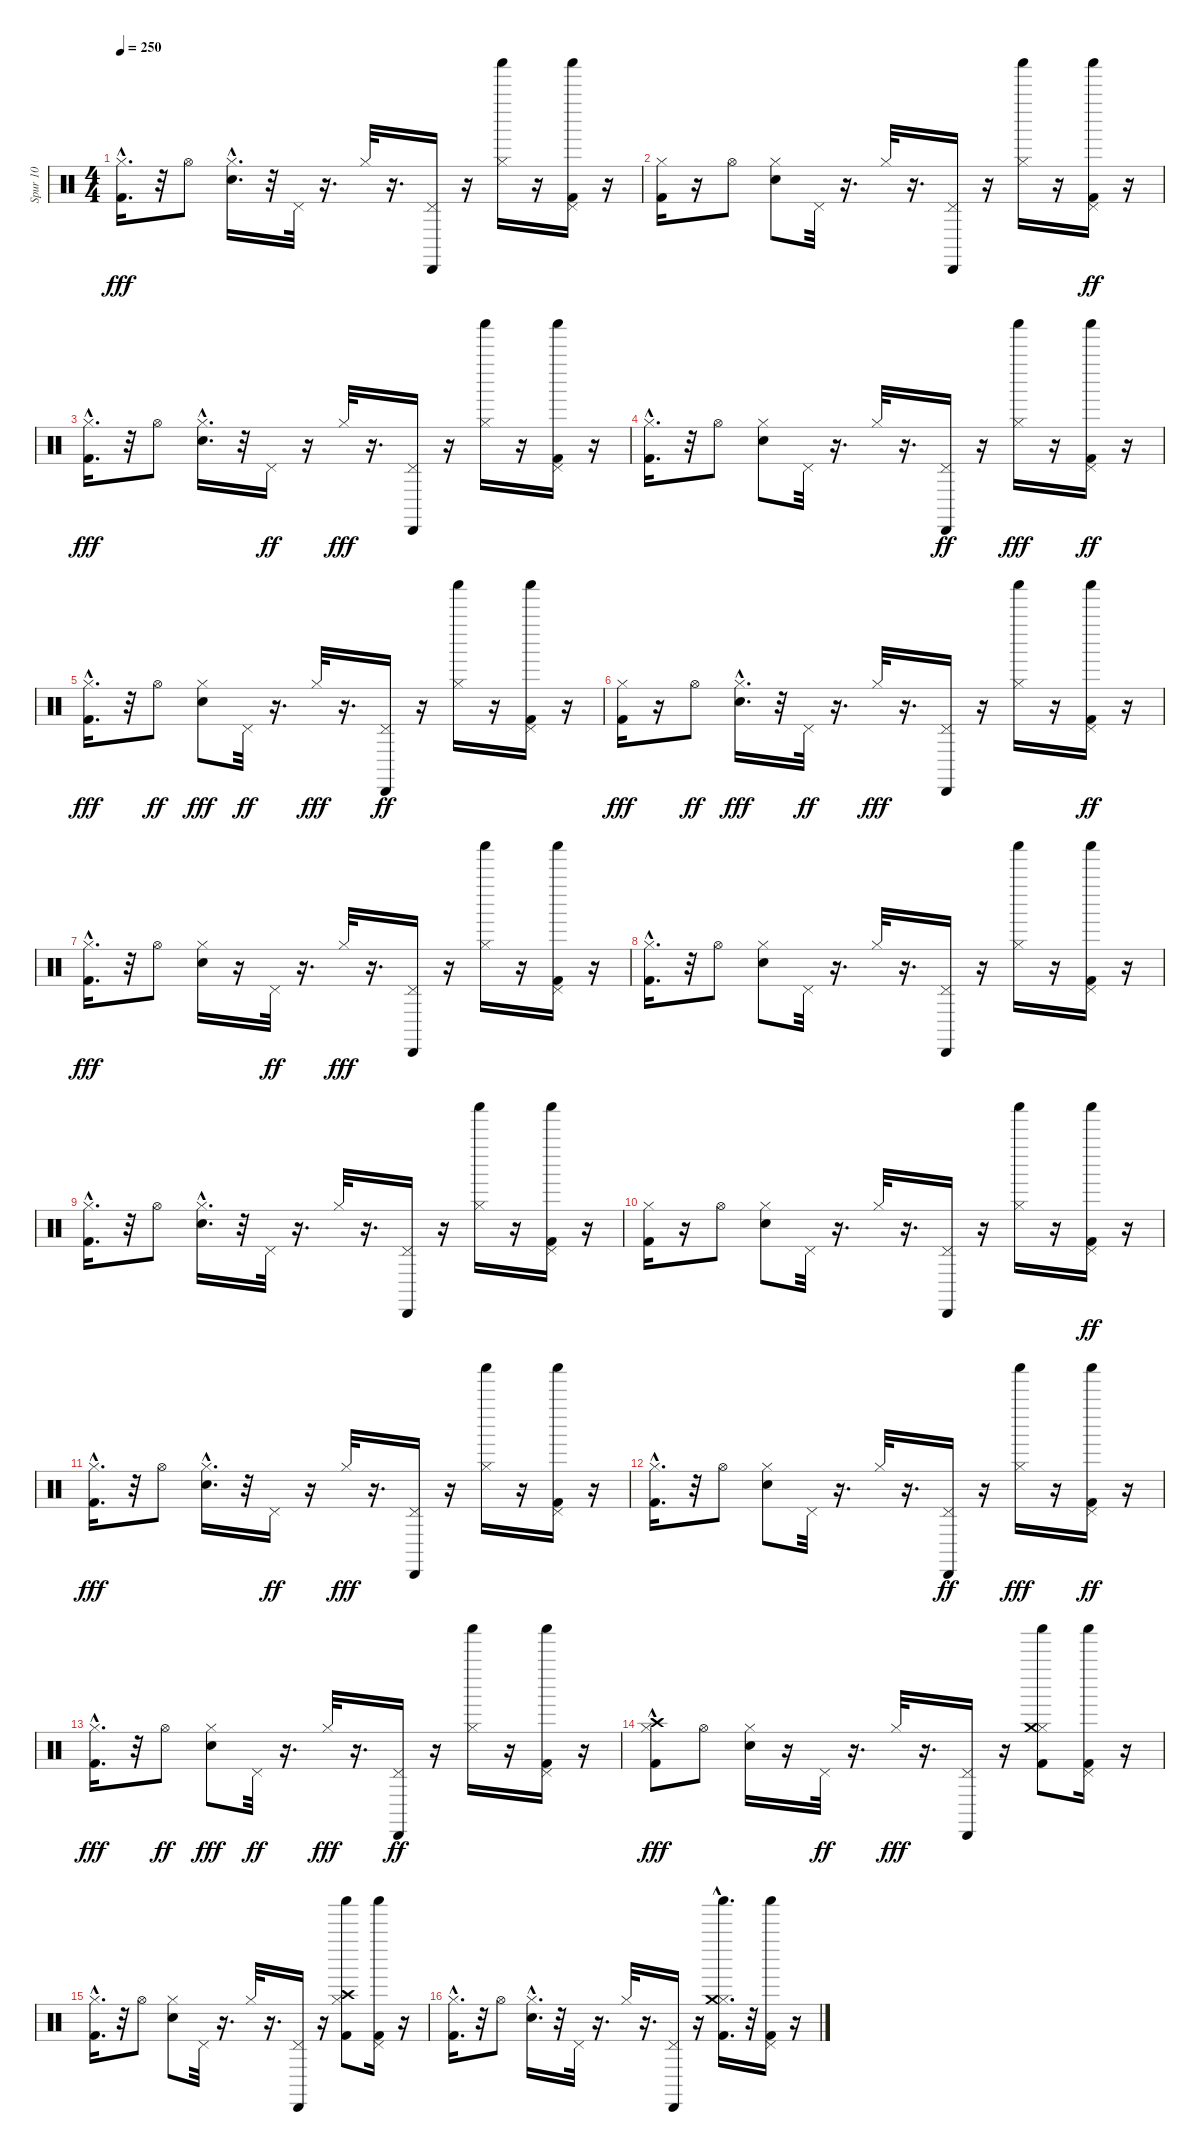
\track ("Spur 10" "Spur 10") {instrument percussion}
\staff {score}
\articulation defaults
\ts (4 4)
\tempo 250
\clef neutral
\ks c
("Kick (hit) 2"{hac} "Hi-Hat (closed)").16{d dy fff} r.32 "Hi-Hat (open)".8 ("Snare (hit) 2"{hac} "Hi-Hat (closed)").16{d} r.32 "Pedal Hi-Hat (hit)".32 r.16{d} "Hi-Hat (closed)".32 r.16{d} ("Pedal Hi-Hat (hit)" "Cabasa (hit)").16 r.16 ("Hi-Hat (closed)" "Shaker (hit)").16 r.16 ("Kick (hit) 2" "Pedal Hi-Hat (hit)" "Shaker (hit)").16 r.16 |
("Kick (hit) 2" "Hi-Hat (closed)").16 r.16 "Hi-Hat (open)".8 ("Snare (hit) 2" "Hi-Hat (closed)").8 "Pedal Hi-Hat (hit)".32 r.16{d} "Hi-Hat (closed)".32 r.16{d} ("Pedal Hi-Hat (hit)" "Cabasa (hit)").16 r.16 ("Hi-Hat (closed)" "Shaker (hit)").16 r.16 ("Kick (hit) 2" "Pedal Hi-Hat (hit)" "Shaker (hit)").16{dy ff} r.16 |
("Kick (hit) 2"{hac} "Hi-Hat (closed)").16{d dy fff} r.32 "Hi-Hat (open)".8 ("Snare (hit) 2"{hac} "Hi-Hat (closed)").16{d} r.32 "Pedal Hi-Hat (hit)".16{dy ff} r.16 "Hi-Hat (closed)".32{dy fff} r.16{d} ("Pedal Hi-Hat (hit)" "Cabasa (hit)").16 r.16 ("Hi-Hat (closed)" "Shaker (hit)").16 r.16 ("Kick (hit) 2" "Pedal Hi-Hat (hit)" "Shaker (hit)").16 r.16 |
("Kick (hit) 2"{hac} "Hi-Hat (closed)").16{d} r.32 "Hi-Hat (open)".8 ("Snare (hit) 2" "Hi-Hat (closed)").8 "Pedal Hi-Hat (hit)".32 r.16{d} "Hi-Hat (closed)".32 r.16{d} ("Pedal Hi-Hat (hit)" "Cabasa (hit)").16{dy ff} r.16 ("Hi-Hat (closed)" "Shaker (hit)").16{dy fff} r.16 ("Kick (hit) 2" "Pedal Hi-Hat (hit)" "Shaker (hit)").16{dy ff} r.16 |
("Kick (hit) 2"{hac} "Hi-Hat (closed)").16{d dy fff} r.32 "Hi-Hat (open)".8{dy ff} ("Snare (hit) 2" "Hi-Hat (closed)").8{dy fff} "Pedal Hi-Hat (hit)".32{dy ff} r.16{d} "Hi-Hat (closed)".32{dy fff} r.16{d} ("Pedal Hi-Hat (hit)" "Cabasa (hit)").16{dy ff} r.16 ("Hi-Hat (closed)" "Shaker (hit)").16 r.16 ("Kick (hit) 2" "Pedal Hi-Hat (hit)" "Shaker (hit)").16 r.16 |
("Kick (hit) 2" "Hi-Hat (closed)").16{dy fff} r.16 "Hi-Hat (open)".8{dy ff} ("Snare (hit) 2"{hac} "Hi-Hat (closed)").16{d dy fff} r.32 "Pedal Hi-Hat (hit)".32{dy ff} r.16{d} "Hi-Hat (closed)".32{dy fff} r.16{d} ("Pedal Hi-Hat (hit)" "Cabasa (hit)").16 r.16 ("Hi-Hat (closed)" "Shaker (hit)").16 r.16 ("Kick (hit) 2" "Pedal Hi-Hat (hit)" "Shaker (hit)").16{dy ff} r.16 |
("Kick (hit) 2"{hac} "Hi-Hat (closed)").16{d dy fff} r.32 "Hi-Hat (open)".8 ("Snare (hit) 2" "Hi-Hat (closed)").16 r.16 "Pedal Hi-Hat (hit)".32{dy ff} r.16{d} "Hi-Hat (closed)".32{dy fff} r.16{d} ("Pedal Hi-Hat (hit)" "Cabasa (hit)").16 r.16 ("Hi-Hat (closed)" "Shaker (hit)").16 r.16 ("Kick (hit) 2" "Pedal Hi-Hat (hit)" "Shaker (hit)").16 r.16 |
("Kick (hit) 2"{hac} "Hi-Hat (closed)").16{d} r.32 "Hi-Hat (open)".8 ("Snare (hit) 2" "Hi-Hat (closed)").8 "Pedal Hi-Hat (hit)".32 r.16{d} "Hi-Hat (closed)".32 r.16{d} ("Pedal Hi-Hat (hit)" "Cabasa (hit)").16 r.16 ("Hi-Hat (closed)" "Shaker (hit)").16 r.16 ("Kick (hit) 2" "Pedal Hi-Hat (hit)" "Shaker (hit)").16 r.16 |
("Kick (hit) 2"{hac} "Hi-Hat (closed)").16{d} r.32 "Hi-Hat (open)".8 ("Snare (hit) 2"{hac} "Hi-Hat (closed)").16{d} r.32 "Pedal Hi-Hat (hit)".32 r.16{d} "Hi-Hat (closed)".32 r.16{d} ("Pedal Hi-Hat (hit)" "Cabasa (hit)").16 r.16 ("Hi-Hat (closed)" "Shaker (hit)").16 r.16 ("Kick (hit) 2" "Pedal Hi-Hat (hit)" "Shaker (hit)").16 r.16 |
("Kick (hit) 2" "Hi-Hat (closed)").16 r.16 "Hi-Hat (open)".8 ("Snare (hit) 2" "Hi-Hat (closed)").8 "Pedal Hi-Hat (hit)".32 r.16{d} "Hi-Hat (closed)".32 r.16{d} ("Pedal Hi-Hat (hit)" "Cabasa (hit)").16 r.16 ("Hi-Hat (closed)" "Shaker (hit)").16 r.16 ("Kick (hit) 2" "Pedal Hi-Hat (hit)" "Shaker (hit)").16{dy ff} r.16 |
("Kick (hit) 2"{hac} "Hi-Hat (closed)").16{d dy fff} r.32 "Hi-Hat (open)".8 ("Snare (hit) 2"{hac} "Hi-Hat (closed)").16{d} r.32 "Pedal Hi-Hat (hit)".16{dy ff} r.16 "Hi-Hat (closed)".32{dy fff} r.16{d} ("Pedal Hi-Hat (hit)" "Cabasa (hit)").16 r.16 ("Hi-Hat (closed)" "Shaker (hit)").16 r.16 ("Kick (hit) 2" "Pedal Hi-Hat (hit)" "Shaker (hit)").16 r.16 |
("Kick (hit) 2"{hac} "Hi-Hat (closed)").16{d} r.32 "Hi-Hat (open)".8 ("Snare (hit) 2" "Hi-Hat (closed)").8 "Pedal Hi-Hat (hit)".32 r.16{d} "Hi-Hat (closed)".32 r.16{d} ("Pedal Hi-Hat (hit)" "Cabasa (hit)").16{dy ff} r.16 ("Hi-Hat (closed)" "Shaker (hit)").16{dy fff} r.16 ("Kick (hit) 2" "Pedal Hi-Hat (hit)" "Shaker (hit)").16{dy ff} r.16 |
("Kick (hit) 2"{hac} "Hi-Hat (closed)").16{d dy fff} r.32 "Hi-Hat (open)".8{dy ff} ("Snare (hit) 2" "Hi-Hat (closed)").8{dy fff} "Pedal Hi-Hat (hit)".32{dy ff} r.16{d} "Hi-Hat (closed)".32{dy fff} r.16{d} ("Pedal Hi-Hat (hit)" "Cabasa (hit)").16{dy ff} r.16 ("Hi-Hat (closed)" "Shaker (hit)").16 r.16 ("Kick (hit) 2" "Pedal Hi-Hat (hit)" "Shaker (hit)").16 r.16 |
("Kick (hit) 2"{hac} "Hi-Hat (closed)" "Crash high (hit)").8{dy fff} "Hi-Hat (open)".8 ("Snare (hit) 2" "Hi-Hat (closed)").16 r.16 "Pedal Hi-Hat (hit)".32{dy ff} r.16{d} "Hi-Hat (closed)".32{dy fff} r.16{d} ("Pedal Hi-Hat (hit)" "Cabasa (hit)").16 r.16 ("Hi-Hat (closed)" "Shaker (hit)" "Crash medium (hit)" "Kick (hit) 2").8 ("Kick (hit) 2" "Pedal Hi-Hat (hit)" "Shaker (hit)").16 r.16 |
("Kick (hit) 2"{hac} "Hi-Hat (closed)").16{d} r.32 "Hi-Hat (open)".8 ("Snare (hit) 2" "Hi-Hat (closed)").8 "Pedal Hi-Hat (hit)".32 r.16{d} "Hi-Hat (closed)".32 r.16{d} ("Pedal Hi-Hat (hit)" "Cabasa (hit)").16 r.16 ("Hi-Hat (closed)" "Shaker (hit)" "Crash high (hit)" "Kick (hit) 2").8 ("Kick (hit) 2" "Pedal Hi-Hat (hit)" "Shaker (hit)").16 r.16 |
("Kick (hit) 2"{hac} "Hi-Hat (closed)").16{d} r.32 "Hi-Hat (open)".8 ("Snare (hit) 2"{hac} "Hi-Hat (closed)").16{d} r.32 "Pedal Hi-Hat (hit)".32 r.16{d} "Hi-Hat (closed)".32 r.16{d} ("Pedal Hi-Hat (hit)" "Cabasa (hit)").16 r.16 ("Hi-Hat (closed)" "Shaker (hit)" "Crash medium (hit)" "Kick (hit) 2"{hac}).16{d} r.32 ("Kick (hit) 2" "Pedal Hi-Hat (hit)" "Shaker (hit)").16 r.16
